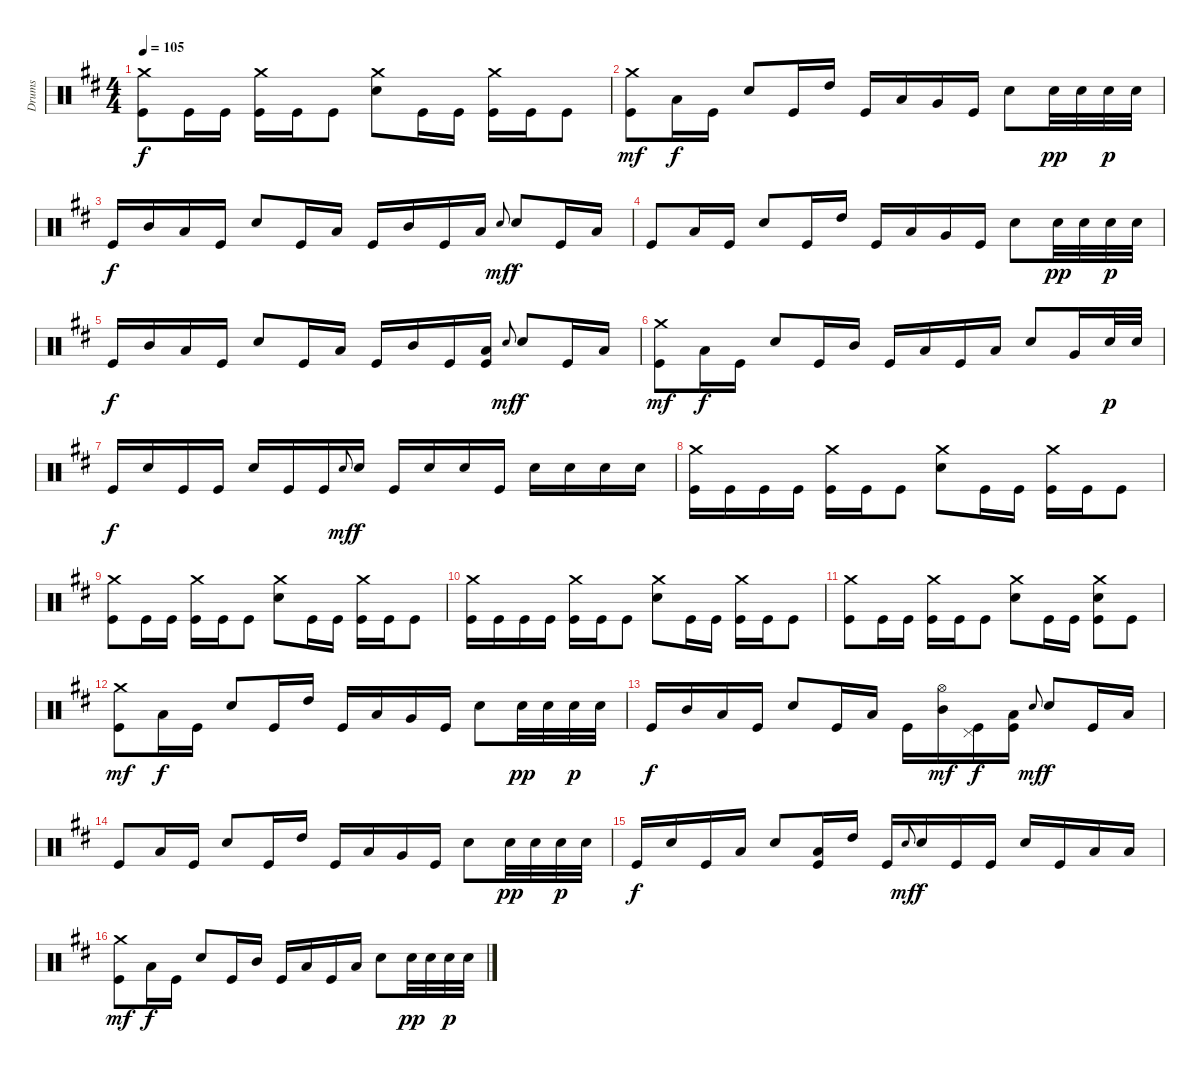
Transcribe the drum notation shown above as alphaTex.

\track ("Drums" "Drums") {instrument percussion}
\staff {score}
\articulation defaults
\ts (4 4)
\tempo 105
\clef neutral
\ks d
("Crash medium (hit)" "Kick (hit)").8{dy f} "Kick (hit)".16 "Kick (hit)".16 ("Crash medium (hit)" "Kick (hit)").16 "Kick (hit)".16 "Kick (hit)".8 ("Crash medium (hit)" "Snare (hit) 2").8 "Kick (hit)".16 "Kick (hit)".16 ("Crash medium (hit)" "Kick (hit)").16 "Kick (hit)".16 "Kick (hit)".8 |
("Crash medium (hit)" "Kick (hit)").8{dy mf} "Low Floor Tom (hit)".16{dy f} "Kick (hit)".16 "Snare (hit) 2".8 "Kick (hit)".16 "High Tom (hit)".16 "Kick (hit)".16 "Low Tom (hit)".16 "Very Low Tom (hit)".16 "Kick (hit)".16 "Snare (hit) 2".8 "Snare (hit) 2".32{dy pp} "Snare (hit) 2".32 "Snare (hit) 2".32{dy p} "Snare (hit) 2".32 |
"Kick (hit)".16{dy f} "Mid Tom (hit)".16 "Low Tom (hit)".16 "Kick (hit)".16 "Snare (hit) 2".8 "Kick (hit)".16 "Low Tom (hit)".16 "Kick (hit)".16 "Mid Tom (hit)".16 "Kick (hit)".16 "Low Floor Tom (hit)".16 "Snare (hit) 2".8{gr onbeat dy mf} "Snare (hit) 2".8{dy f} "Kick (hit)".16 "Low Tom (hit)".16 |
"Kick (hit)".8 "Low Floor Tom (hit)".16 "Kick (hit)".16 "Snare (hit) 2".8 "Kick (hit)".16 "High Tom (hit)".16 "Kick (hit)".16 "Low Tom (hit)".16 "Very Low Tom (hit)".16 "Kick (hit)".16 "Snare (hit) 2".8 "Snare (hit) 2".32{dy pp} "Snare (hit) 2".32 "Snare (hit) 2".32{dy p} "Snare (hit) 2".32 |
"Kick (hit)".16{dy f} "Mid Tom (hit)".16 "Low Tom (hit)".16 "Kick (hit)".16 "Snare (hit) 2".8 "Kick (hit)".16 "Low Tom (hit)".16 "Kick (hit)".16 "Mid Tom (hit)".16 "Kick (hit)".16 ("Low Floor Tom (hit)" "Kick (hit)").16 "Snare (hit) 2".8{gr onbeat dy mf} "Snare (hit) 2".8{dy f} "Kick (hit)".16 "Low Tom (hit)".16 |
("Crash medium (hit)" "Kick (hit)").8{dy mf} "Low Floor Tom (hit)".16{dy f} "Kick (hit)".16 "Snare (hit) 2".8 "Kick (hit)".16 "Mid Tom (hit)".16 "Kick (hit)".16 "Low Tom (hit)".16 "Kick (hit)".16 "Low Floor Tom (hit)".16 "Snare (hit) 2".8 "Very Low Tom (hit)".16 "Snare (hit) 2".32{dy p} "Snare (hit) 2".32 |
"Kick (hit)".16{dy f} "Snare (hit) 2".16 "Kick (hit)".16 "Kick (hit)".16 "Snare (hit) 2".16 "Kick (hit)".16 "Kick (hit)".16 "Snare (hit) 2".8{gr onbeat dy mf} "Snare (hit) 2".16{dy f} "Kick (hit)".16 "Snare (hit) 2".16 "Snare (hit) 2".16 "Kick (hit)".16 "Snare (hit) 2".16 "Snare (hit) 2".16 "Snare (hit) 2".16 "Snare (hit) 2".16 |
("Crash medium (hit)" "Kick (hit)").16 "Kick (hit)".16 "Kick (hit)".16 "Kick (hit)".16 ("Crash medium (hit)" "Kick (hit)").16 "Kick (hit)".16 "Kick (hit)".8 ("Crash medium (hit)" "Snare (hit) 2").8 "Kick (hit)".16 "Kick (hit)".16 ("Crash medium (hit)" "Kick (hit)").16 "Kick (hit)".16 "Kick (hit)".8 |
("Crash medium (hit)" "Kick (hit)").8 "Kick (hit)".16 "Kick (hit)".16 ("Crash medium (hit)" "Kick (hit)").16 "Kick (hit)".16 "Kick (hit)".8 ("Crash medium (hit)" "Snare (hit) 2").8 "Kick (hit)".16 "Kick (hit)".16 ("Crash medium (hit)" "Kick (hit)").16 "Kick (hit)".16 "Kick (hit)".8 |
("Crash medium (hit)" "Kick (hit)").16 "Kick (hit)".16 "Kick (hit)".16 "Kick (hit)".16 ("Crash medium (hit)" "Kick (hit)").16 "Kick (hit)".16 "Kick (hit)".8 ("Crash medium (hit)" "Snare (hit) 2").8 "Kick (hit)".16 "Kick (hit)".16 ("Crash medium (hit)" "Kick (hit)").16 "Kick (hit)".16 "Kick (hit)".8 |
("Crash medium (hit)" "Kick (hit)").8 "Kick (hit)".16 "Kick (hit)".16 ("Crash medium (hit)" "Kick (hit)").16 "Kick (hit)".16 "Kick (hit)".8 ("Crash medium (hit)" "Snare (hit) 2").8 "Kick (hit)".16 "Kick (hit)".16 ("Crash medium (hit)" "Snare (hit) 2" "Kick (hit)").8 "Kick (hit)".8 |
("Crash medium (hit)" "Kick (hit)").8{dy mf} "Low Floor Tom (hit)".16{dy f} "Kick (hit)".16 "Snare (hit) 2".8 "Kick (hit)".16 "High Tom (hit)".16 "Kick (hit)".16 "Low Tom (hit)".16 "Very Low Tom (hit)".16 "Kick (hit)".16 "Snare (hit) 2".8 "Snare (hit) 2".32{dy pp} "Snare (hit) 2".32 "Snare (hit) 2".32{dy p} "Snare (hit) 2".32 |
"Kick (hit)".16{dy f} "Mid Tom (hit)".16 "Low Tom (hit)".16 "Kick (hit)".16 "Snare (hit) 2".8 "Kick (hit)".16 "Low Tom (hit)".16 "Kick (hit)".16 ("Hi-Hat (open)" "Mid Tom (hit)").16{dy mf} ("Pedal Hi-Hat (hit)" "Kick (hit)").16{dy f} ("Low Floor Tom (hit)" "Kick (hit)").16 "Snare (hit) 2".8{gr onbeat dy mf} "Snare (hit) 2".8{dy f} "Kick (hit)".16 "Low Tom (hit)".16 |
"Kick (hit)".8 "Low Floor Tom (hit)".16 "Kick (hit)".16 "Snare (hit) 2".8 "Kick (hit)".16 "High Tom (hit)".16 "Kick (hit)".16 "Low Tom (hit)".16 "Very Low Tom (hit)".16 "Kick (hit)".16 "Snare (hit) 2".8 "Snare (hit) 2".32{dy pp} "Snare (hit) 2".32 "Snare (hit) 2".32{dy p} "Snare (hit) 2".32 |
"Kick (hit)".16{dy f} "Snare (hit) 2".16 "Kick (hit)".16 "Low Floor Tom (hit)".16 "Snare (hit) 2".8 ("Low Floor Tom (hit)" "Kick (hit)").16 "High Tom (hit)".16 "Kick (hit)".16 "Snare (hit) 2".8{gr onbeat dy mf} "Snare (hit) 2".16{dy f} "Kick (hit)".16 "Kick (hit)".16 "Snare (hit) 2".16 "Kick (hit)".16 "Low Floor Tom (hit)".16 "Low Tom (hit)".16 |
("Crash medium (hit)" "Kick (hit)").8{dy mf} "Low Floor Tom (hit)".16{dy f} "Kick (hit)".16 "Snare (hit) 2".8 "Kick (hit)".16 "Mid Tom (hit)".16 "Kick (hit)".16 "Low Tom (hit)".16 "Kick (hit)".16 "Low Floor Tom (hit)".16 "Snare (hit) 2".8 "Snare (hit) 2".32{dy pp} "Snare (hit) 2".32 "Snare (hit) 2".32{dy p} "Snare (hit) 2".32
